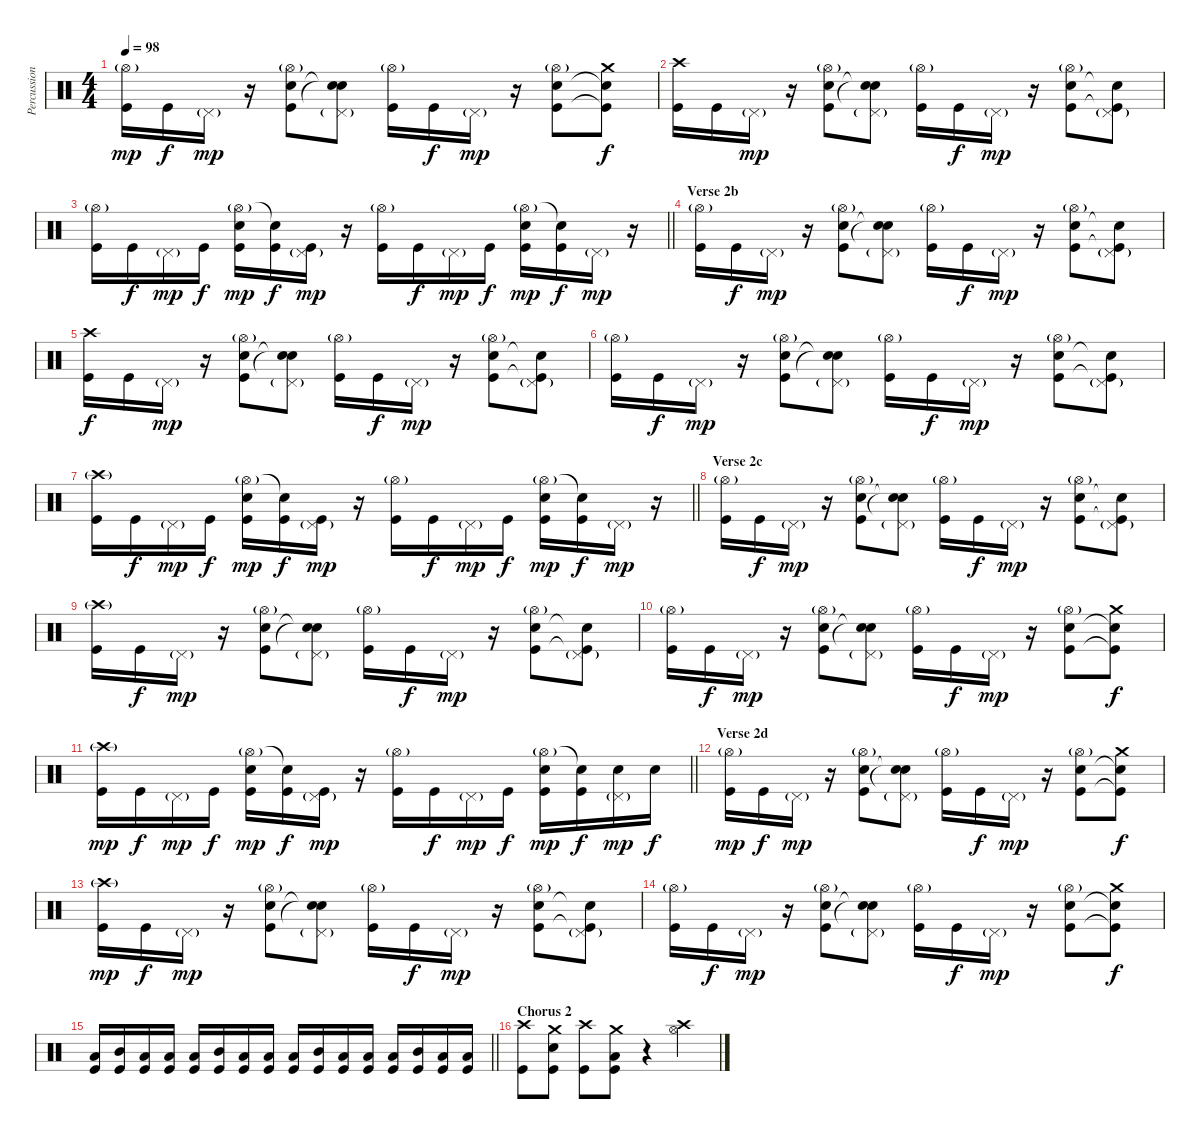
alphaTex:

\track ("Percussion" "Percussion") {instrument percussion}
\staff {score}
\articulation defaults
\ts (4 4)
\tempo 98
\clef neutral
\ks c
("Hi-Hat (open)"{g} "Kick (hit)").16{dy mp} "Kick (hit)".16{dy f} "Pedal Hi-Hat (hit)"{g}.16{dy mp} r.16 ("Hi-Hat (open)"{g} "Snare (hit) 2" "Kick (hit)").8 ("Pedal Hi-Hat (hit)"{g} "Snare (hit)"{t} "Snare (hit)"{t}).8 ("Hi-Hat (open)"{g} "Kick (hit)").16 "Kick (hit)".16{dy f} "Pedal Hi-Hat (hit)"{g}.16{dy mp} r.16 ("Hi-Hat (open)"{g} "Snare (hit) 2" "Kick (hit)").8 ("Crash medium (hit)" "Snare (hit)"{t} "Kick (hit)"{t}).8{dy f} |
("Crash high (hit)" "Kick (hit)").16 "Kick (hit)".16 "Pedal Hi-Hat (hit)"{g}.16{dy mp} r.16 ("Hi-Hat (open)"{g} "Snare (hit) 2" "Kick (hit)").8 ("Pedal Hi-Hat (hit)"{g} "Snare (hit)"{t} "Snare (hit)"{t}).8 ("Hi-Hat (open)"{g} "Kick (hit)").16 "Kick (hit)".16{dy f} "Pedal Hi-Hat (hit)"{g}.16{dy mp} r.16 ("Hi-Hat (open)"{g} "Snare (hit) 2" "Kick (hit)").8 ("Pedal Hi-Hat (hit)"{g} "Snare (hit)"{t} "Kick (hit)"{t}).8 |
\barLineRight lightlight
("Hi-Hat (open)"{g} "Kick (hit)").16 "Kick (hit)".16{dy f} "Pedal Hi-Hat (hit)"{g}.16{dy mp} "Kick (hit)".16{dy f} ("Hi-Hat (open)"{g} "Snare (hit) 2" "Kick (hit)").16{dy mp} ("Snare (hit)"{t} "Kick (hit)").16{dy f} ("Pedal Hi-Hat (hit)"{g} "Kick (hit)").16{dy mp} r.16 ("Hi-Hat (open)"{g} "Kick (hit)").16 "Kick (hit)".16{dy f} "Pedal Hi-Hat (hit)"{g}.16{dy mp} "Kick (hit)".16{dy f} ("Hi-Hat (open)"{g} "Snare (hit) 2" "Kick (hit)").16{dy mp} ("Snare (hit)"{t} "Kick (hit)").16{dy f} "Pedal Hi-Hat (hit)"{g}.16{dy mp} r.16 |
\section ("" "Verse 2b")
("Hi-Hat (open)"{g} "Kick (hit)").16 "Kick (hit)".16{dy f} "Pedal Hi-Hat (hit)"{g}.16{dy mp} r.16 ("Hi-Hat (open)"{g} "Snare (hit) 2" "Kick (hit)").8 ("Pedal Hi-Hat (hit)"{g} "Snare (hit)"{t} "Snare (hit)"{t}).8 ("Hi-Hat (open)"{g} "Kick (hit)").16 "Kick (hit)".16{dy f} "Pedal Hi-Hat (hit)"{g}.16{dy mp} r.16 ("Hi-Hat (open)"{g} "Snare (hit) 2" "Kick (hit)").8 ("Pedal Hi-Hat (hit)"{g} "Snare (hit)"{t} "Kick (hit)"{t}).8 |
("Crash high (hit)" "Kick (hit)").16{dy f} "Kick (hit)".16 "Pedal Hi-Hat (hit)"{g}.16{dy mp} r.16 ("Hi-Hat (open)"{g} "Snare (hit) 2" "Kick (hit)").8 ("Pedal Hi-Hat (hit)"{g} "Snare (hit)"{t} "Snare (hit)"{t}).8 ("Hi-Hat (open)"{g} "Kick (hit)").16 "Kick (hit)".16{dy f} "Pedal Hi-Hat (hit)"{g}.16{dy mp} r.16 ("Hi-Hat (open)"{g} "Snare (hit) 2" "Kick (hit)").8 ("Pedal Hi-Hat (hit)"{g} "Snare (hit)"{t} "Kick (hit)"{t}).8 |
("Hi-Hat (open)"{g} "Kick (hit)").16 "Kick (hit)".16{dy f} "Pedal Hi-Hat (hit)"{g}.16{dy mp} r.16 ("Hi-Hat (open)"{g} "Snare (hit) 2" "Kick (hit)").8 ("Pedal Hi-Hat (hit)"{g} "Snare (hit)"{t} "Snare (hit)"{t}).8 ("Hi-Hat (open)"{g} "Kick (hit)").16 "Kick (hit)".16{dy f} "Pedal Hi-Hat (hit)"{g}.16{dy mp} r.16 ("Hi-Hat (open)"{g} "Snare (hit) 2" "Kick (hit)").8 ("Pedal Hi-Hat (hit)"{g} "Snare (hit)"{t} "Kick (hit)"{t}).8 |
\barLineRight lightlight
("Crash high (hit)"{g} "Kick (hit)").16 "Kick (hit)".16{dy f} "Pedal Hi-Hat (hit)"{g}.16{dy mp} "Kick (hit)".16{dy f} ("Hi-Hat (open)"{g} "Snare (hit) 2" "Kick (hit)").16{dy mp} ("Snare (hit)"{t} "Kick (hit)").16{dy f} ("Pedal Hi-Hat (hit)"{g} "Kick (hit)").16{dy mp} r.16 ("Hi-Hat (open)"{g} "Kick (hit)").16 "Kick (hit)".16{dy f} "Pedal Hi-Hat (hit)"{g}.16{dy mp} "Kick (hit)".16{dy f} ("Hi-Hat (open)"{g} "Snare (hit) 2" "Kick (hit)").16{dy mp} ("Snare (hit)"{t} "Kick (hit)").16{dy f} "Pedal Hi-Hat (hit)"{g}.16{dy mp} r.16 |
\section ("" "Verse 2c")
("Hi-Hat (open)"{g} "Kick (hit)").16 "Kick (hit)".16{dy f} "Pedal Hi-Hat (hit)"{g}.16{dy mp} r.16 ("Hi-Hat (open)"{g} "Snare (hit) 2" "Kick (hit)").8 ("Pedal Hi-Hat (hit)"{g} "Snare (hit)"{t} "Snare (hit)"{t}).8 ("Hi-Hat (open)"{g} "Kick (hit)").16 "Kick (hit)".16{dy f} "Pedal Hi-Hat (hit)"{g}.16{dy mp} r.16 ("Hi-Hat (open)"{g} "Snare (hit) 2" "Kick (hit)").8 ("Pedal Hi-Hat (hit)"{g} "Snare (hit)"{t} "Kick (hit)"{t}).8 |
("Crash high (hit)"{g} "Kick (hit)").16 "Kick (hit)".16{dy f} "Pedal Hi-Hat (hit)"{g}.16{dy mp} r.16 ("Hi-Hat (open)"{g} "Snare (hit) 2" "Kick (hit)").8 ("Pedal Hi-Hat (hit)"{g} "Snare (hit)"{t} "Snare (hit)"{t}).8 ("Hi-Hat (open)"{g} "Kick (hit)").16 "Kick (hit)".16{dy f} "Pedal Hi-Hat (hit)"{g}.16{dy mp} r.16 ("Hi-Hat (open)"{g} "Snare (hit) 2" "Kick (hit)").8 ("Pedal Hi-Hat (hit)"{g} "Snare (hit)"{t} "Kick (hit)"{t}).8 |
("Hi-Hat (open)"{g} "Kick (hit)").16 "Kick (hit)".16{dy f} "Pedal Hi-Hat (hit)"{g}.16{dy mp} r.16 ("Hi-Hat (open)"{g} "Snare (hit) 2" "Kick (hit)").8 ("Pedal Hi-Hat (hit)"{g} "Snare (hit)"{t} "Snare (hit)"{t}).8 ("Hi-Hat (open)"{g} "Kick (hit)").16 "Kick (hit)".16{dy f} "Pedal Hi-Hat (hit)"{g}.16{dy mp} r.16 ("Hi-Hat (open)"{g} "Snare (hit) 2" "Kick (hit)").8 ("Crash medium (hit)" "Snare (hit)"{t} "Kick (hit)"{t}).8{dy f} |
\barLineRight lightlight
("Crash high (hit)"{g} "Kick (hit)").16{dy mp} "Kick (hit)".16{dy f} "Pedal Hi-Hat (hit)"{g}.16{dy mp} "Kick (hit)".16{dy f} ("Hi-Hat (open)"{g} "Snare (hit) 2" "Kick (hit)").16{dy mp} ("Snare (hit)"{t} "Kick (hit)").16{dy f} ("Pedal Hi-Hat (hit)"{g} "Kick (hit)").16{dy mp} r.16 ("Hi-Hat (open)"{g} "Kick (hit)").16 "Kick (hit)".16{dy f} "Pedal Hi-Hat (hit)"{g}.16{dy mp} "Kick (hit)".16{dy f} ("Hi-Hat (open)"{g} "Snare (hit) 2" "Kick (hit)").16{dy mp} ("Snare (hit)"{t} "Kick (hit)").16{dy f} ("Pedal Hi-Hat (hit)"{g} "Snare (hit) 2").16{dy mp} "Snare (hit) 2".16{dy f} |
\section ("" "Verse 2d")
("Hi-Hat (open)"{g} "Kick (hit)").16{dy mp} "Kick (hit)".16{dy f} "Pedal Hi-Hat (hit)"{g}.16{dy mp} r.16 ("Hi-Hat (open)"{g} "Snare (hit) 2" "Kick (hit)").8 ("Pedal Hi-Hat (hit)"{g} "Snare (hit)"{t} "Snare (hit)"{t}).8 ("Hi-Hat (open)"{g} "Kick (hit)").16 "Kick (hit)".16{dy f} "Pedal Hi-Hat (hit)"{g}.16{dy mp} r.16 ("Hi-Hat (open)"{g} "Snare (hit) 2" "Kick (hit)").8 ("Crash medium (hit)" "Snare (hit)"{t} "Kick (hit)"{t}).8{dy f} |
("Crash high (hit)"{g} "Kick (hit)").16{dy mp} "Kick (hit)".16{dy f} "Pedal Hi-Hat (hit)"{g}.16{dy mp} r.16 ("Hi-Hat (open)"{g} "Snare (hit) 2" "Kick (hit)").8 ("Pedal Hi-Hat (hit)"{g} "Snare (hit)"{t} "Snare (hit)"{t}).8 ("Hi-Hat (open)"{g} "Kick (hit)").16 "Kick (hit)".16{dy f} "Pedal Hi-Hat (hit)"{g}.16{dy mp} r.16 ("Hi-Hat (open)"{g} "Snare (hit) 2" "Kick (hit)").8 ("Pedal Hi-Hat (hit)"{g} "Snare (hit)"{t} "Kick (hit)"{t}).8 |
("Hi-Hat (open)"{g} "Kick (hit)").16 "Kick (hit)".16{dy f} "Pedal Hi-Hat (hit)"{g}.16{dy mp} r.16 ("Hi-Hat (open)"{g} "Snare (hit) 2" "Kick (hit)").8 ("Pedal Hi-Hat (hit)"{g} "Snare (hit)"{t} "Snare (hit)"{t}).8 ("Hi-Hat (open)"{g} "Kick (hit)").16 "Kick (hit)".16{dy f} "Pedal Hi-Hat (hit)"{g}.16{dy mp} r.16 ("Hi-Hat (open)"{g} "Snare (hit) 2" "Kick (hit)").8 ("Crash medium (hit)" "Snare (hit)"{t} "Kick (hit)"{t}).8{dy f} |
\barLineRight lightlight
("Low Tom (hit)" "Kick (hit)").16 ("Mid Tom (hit)" "Kick (hit)").16 ("Low Tom (hit)" "Kick (hit)").16 ("Low Tom (hit)" "Kick (hit)").16 ("Low Tom (hit)" "Kick (hit)").16 ("Mid Tom (hit)" "Kick (hit)").16 ("Low Tom (hit)" "Kick (hit)").16 ("Low Tom (hit)" "Kick (hit)").16 ("Low Tom (hit)" "Kick (hit)").16 ("Mid Tom (hit)" "Kick (hit)").16 ("Low Tom (hit)" "Kick (hit)").16 ("Low Tom (hit)" "Kick (hit)").16 ("Low Tom (hit)" "Kick (hit)").16 ("Mid Tom (hit)" "Kick (hit)").16 ("Low Tom (hit)" "Kick (hit)").16 ("Low Tom (hit)" "Kick (hit)").16 |
\section ("" "Chorus 2")
("Crash high (hit)" "Kick (hit)").8 ("Crash medium (hit)" "Snare (hit) 2" "Kick (hit)").8 ("Crash high (hit)" "Kick (hit)").8 ("Crash medium (hit)" "Low Floor Tom (hit)" "Kick (hit)").8 r.4 ("Crash high (hit)" "Hi-Hat (open)").4
